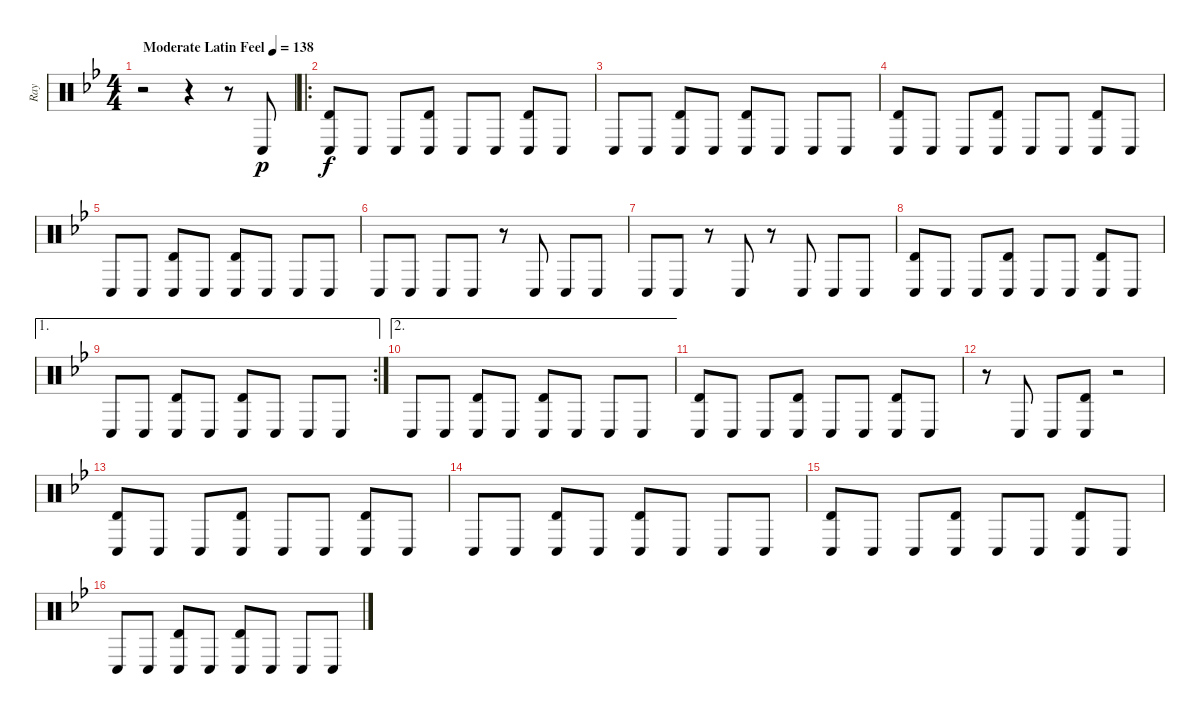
\track ("Ray" "Ray") {instrument percussion}
\staff {score}
\articulation defaults
\ts (4 4)
\tempo (138 "Moderate Latin Feel")
\clef neutral
\ks bb
r.2{dy p} r.4 r.8 "Conga low (hit)".8 |
\ro
("Timbale high (hit)" "Conga low (hit)").8{dy f} "Conga low (hit)".8 "Conga low (hit)".8 ("Timbale high (hit)" "Conga low (hit)").8 "Conga low (hit)".8 "Conga low (hit)".8 ("Timbale high (hit)" "Conga low (hit)").8 "Conga low (hit)".8 |
"Conga low (hit)".8 "Conga low (hit)".8 ("Timbale high (hit)" "Conga low (hit)").8 "Conga low (hit)".8 ("Timbale high (hit)" "Conga low (hit)").8 "Conga low (hit)".8 "Conga low (hit)".8 "Conga low (hit)".8 |
("Timbale high (hit)" "Conga low (hit)").8 "Conga low (hit)".8 "Conga low (hit)".8 ("Timbale high (hit)" "Conga low (hit)").8 "Conga low (hit)".8 "Conga low (hit)".8 ("Timbale high (hit)" "Conga low (hit)").8 "Conga low (hit)".8 |
"Conga low (hit)".8 "Conga low (hit)".8 ("Timbale high (hit)" "Conga low (hit)").8 "Conga low (hit)".8 ("Timbale high (hit)" "Conga low (hit)").8 "Conga low (hit)".8 "Conga low (hit)".8 "Conga low (hit)".8 |
"Conga low (hit)".8 "Conga low (hit)".8 "Conga low (hit)".8 "Conga low (hit)".8 r.8 "Conga low (hit)".8 "Conga low (hit)".8 "Conga low (hit)".8 |
"Conga low (hit)".8 "Conga low (hit)".8 r.8 "Conga low (hit)".8 r.8 "Conga low (hit)".8 "Conga low (hit)".8 "Conga low (hit)".8 |
("Timbale high (hit)" "Conga low (hit)").8 "Conga low (hit)".8 "Conga low (hit)".8 ("Timbale high (hit)" "Conga low (hit)").8 "Conga low (hit)".8 "Conga low (hit)".8 ("Timbale high (hit)" "Conga low (hit)").8 "Conga low (hit)".8 |
\ae 1
\rc 2 "Conga low (hit)".8 "Conga low (hit)".8
("Timbale high (hit)" "Conga low (hit)").8 "Conga low (hit)".8 ("Timbale high (hit)" "Conga low (hit)").8 "Conga low (hit)".8 "Conga low (hit)".8 "Conga low (hit)".8 |
\ae 2 "Conga low (hit)".8 "Conga low (hit)".8
("Timbale high (hit)" "Conga low (hit)").8 "Conga low (hit)".8 ("Timbale high (hit)" "Conga low (hit)").8 "Conga low (hit)".8 "Conga low (hit)".8 "Conga low (hit)".8 |
("Timbale high (hit)" "Conga low (hit)").8 "Conga low (hit)".8 "Conga low (hit)".8 ("Timbale high (hit)" "Conga low (hit)").8 "Conga low (hit)".8 "Conga low (hit)".8 ("Timbale high (hit)" "Conga low (hit)").8 "Conga low (hit)".8 |
r.8 "Conga low (hit)".8 "Conga low (hit)".8 ("Timbale high (hit)" "Conga low (hit)").8 r.2 |
("Timbale high (hit)" "Conga low (hit)").8 "Conga low (hit)".8 "Conga low (hit)".8 ("Timbale high (hit)" "Conga low (hit)").8 "Conga low (hit)".8 "Conga low (hit)".8 ("Timbale high (hit)" "Conga low (hit)").8 "Conga low (hit)".8 |
"Conga low (hit)".8 "Conga low (hit)".8 ("Timbale high (hit)" "Conga low (hit)").8 "Conga low (hit)".8 ("Timbale high (hit)" "Conga low (hit)").8 "Conga low (hit)".8 "Conga low (hit)".8 "Conga low (hit)".8 |
("Timbale high (hit)" "Conga low (hit)").8 "Conga low (hit)".8 "Conga low (hit)".8 ("Timbale high (hit)" "Conga low (hit)").8 "Conga low (hit)".8 "Conga low (hit)".8 ("Timbale high (hit)" "Conga low (hit)").8 "Conga low (hit)".8 |
"Conga low (hit)".8 "Conga low (hit)".8 ("Timbale high (hit)" "Conga low (hit)").8 "Conga low (hit)".8 ("Timbale high (hit)" "Conga low (hit)").8 "Conga low (hit)".8 "Conga low (hit)".8 "Conga low (hit)".8
